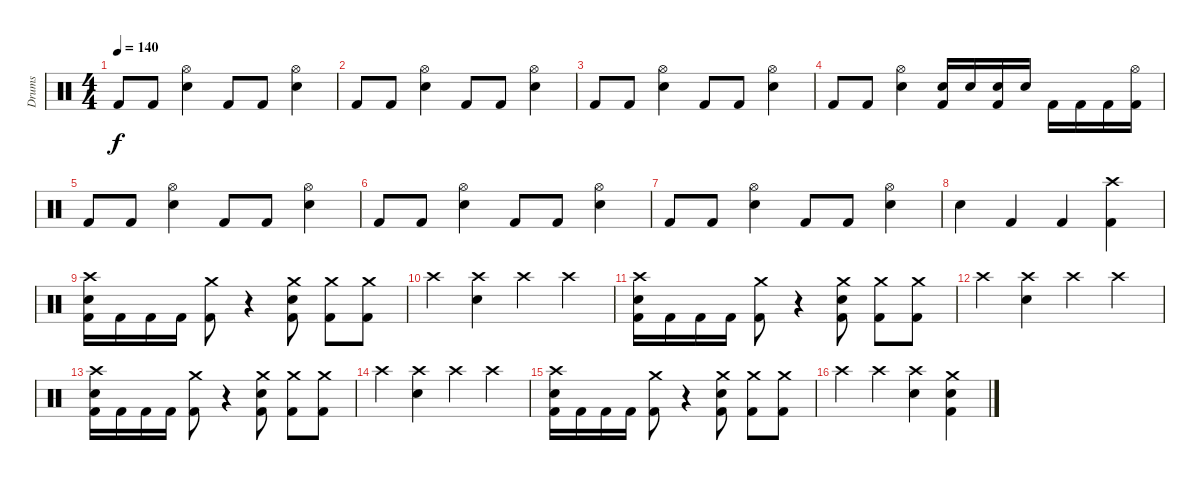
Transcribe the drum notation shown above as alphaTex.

\track ("Drums" "Drums") {instrument percussion}
\staff {score}
\articulation defaults
\ts (4 4)
\tempo 140
\clef neutral
\ks c "Kick (hit) 2".8{dy f} "Kick (hit) 2".8
("Hi-Hat (open)" "Electric Snare (hit)").4 "Kick (hit) 2".8 "Kick (hit) 2".8 ("Hi-Hat (open)" "Electric Snare (hit)").4 |
"Kick (hit) 2".8 "Kick (hit) 2".8 ("Hi-Hat (open)" "Electric Snare (hit)").4 "Kick (hit) 2".8 "Kick (hit) 2".8 ("Hi-Hat (open)" "Electric Snare (hit)").4 |
"Kick (hit) 2".8 "Kick (hit) 2".8 ("Hi-Hat (open)" "Electric Snare (hit)").4 "Kick (hit) 2".8 "Kick (hit) 2".8 ("Hi-Hat (open)" "Electric Snare (hit)").4 |
"Kick (hit) 2".8 "Kick (hit) 2".8 ("Hi-Hat (open)" "Electric Snare (hit)").4 ("Electric Snare (hit)" "Kick (hit) 2").16 "Electric Snare (hit)".16 ("Electric Snare (hit)" "Kick (hit) 2").16 "Electric Snare (hit)".16 "Kick (hit) 2".16 "Kick (hit) 2".16 "Kick (hit) 2".16 ("Hi-Hat (open)" "Kick (hit) 2").16 |
"Kick (hit) 2".8 "Kick (hit) 2".8 ("Hi-Hat (open)" "Electric Snare (hit)").4 "Kick (hit) 2".8 "Kick (hit) 2".8 ("Hi-Hat (open)" "Electric Snare (hit)").4 |
"Kick (hit) 2".8 "Kick (hit) 2".8 ("Hi-Hat (open)" "Electric Snare (hit)").4 "Kick (hit) 2".8 "Kick (hit) 2".8 ("Hi-Hat (open)" "Electric Snare (hit)").4 |
"Kick (hit) 2".8 "Kick (hit) 2".8 ("Hi-Hat (open)" "Electric Snare (hit)").4 "Kick (hit) 2".8 "Kick (hit) 2".8 ("Hi-Hat (open)" "Electric Snare (hit)").4 |
"Electric Snare (hit)".4 "Kick (hit) 2".4 "Kick (hit) 2".4 ("Crash high (hit)" "Kick (hit) 2").4 |
("Crash high (hit)" "Electric Snare (hit)" "Kick (hit) 2").16 "Kick (hit) 2".16 "Kick (hit) 2".16 "Kick (hit) 2".16 ("Crash medium (hit)" "Kick (hit) 2").8 r.4 ("Crash medium (hit)" "Electric Snare (hit)" "Kick (hit) 2").8 ("Crash medium (hit)" "Kick (hit) 2").8 ("Crash medium (hit)" "Kick (hit) 2").8 |
"Crash high (hit)".4 ("Crash high (hit)" "Electric Snare (hit)").4 "Crash high (hit)".4 "Crash high (hit)".4 |
("Crash high (hit)" "Electric Snare (hit)" "Kick (hit) 2").16 "Kick (hit) 2".16 "Kick (hit) 2".16 "Kick (hit) 2".16 ("Crash medium (hit)" "Kick (hit) 2").8 r.4 ("Crash medium (hit)" "Electric Snare (hit)" "Kick (hit) 2").8 ("Crash medium (hit)" "Kick (hit) 2").8 ("Crash medium (hit)" "Kick (hit) 2").8 |
"Crash high (hit)".4 ("Crash high (hit)" "Electric Snare (hit)").4 "Crash high (hit)".4 "Crash high (hit)".4 |
("Crash high (hit)" "Electric Snare (hit)" "Kick (hit) 2").16 "Kick (hit) 2".16 "Kick (hit) 2".16 "Kick (hit) 2".16 ("Crash medium (hit)" "Kick (hit) 2").8 r.4 ("Crash medium (hit)" "Electric Snare (hit)" "Kick (hit) 2").8 ("Crash medium (hit)" "Kick (hit) 2").8 ("Crash medium (hit)" "Kick (hit) 2").8 |
"Crash high (hit)".4 ("Crash high (hit)" "Electric Snare (hit)").4 "Crash high (hit)".4 "Crash high (hit)".4 |
("Crash high (hit)" "Electric Snare (hit)" "Kick (hit) 2").16 "Kick (hit) 2".16 "Kick (hit) 2".16 "Kick (hit) 2".16 ("Crash medium (hit)" "Kick (hit) 2").8 r.4 ("Crash medium (hit)" "Electric Snare (hit)" "Kick (hit) 2").8 ("Crash medium (hit)" "Kick (hit) 2").8 ("Crash medium (hit)" "Kick (hit) 2").8 |
"Crash high (hit)".4 "Crash high (hit)".4 ("Crash high (hit)" "Electric Snare (hit)").4 ("Crash medium (hit)" "Electric Snare (hit)" "Kick (hit) 2").4
